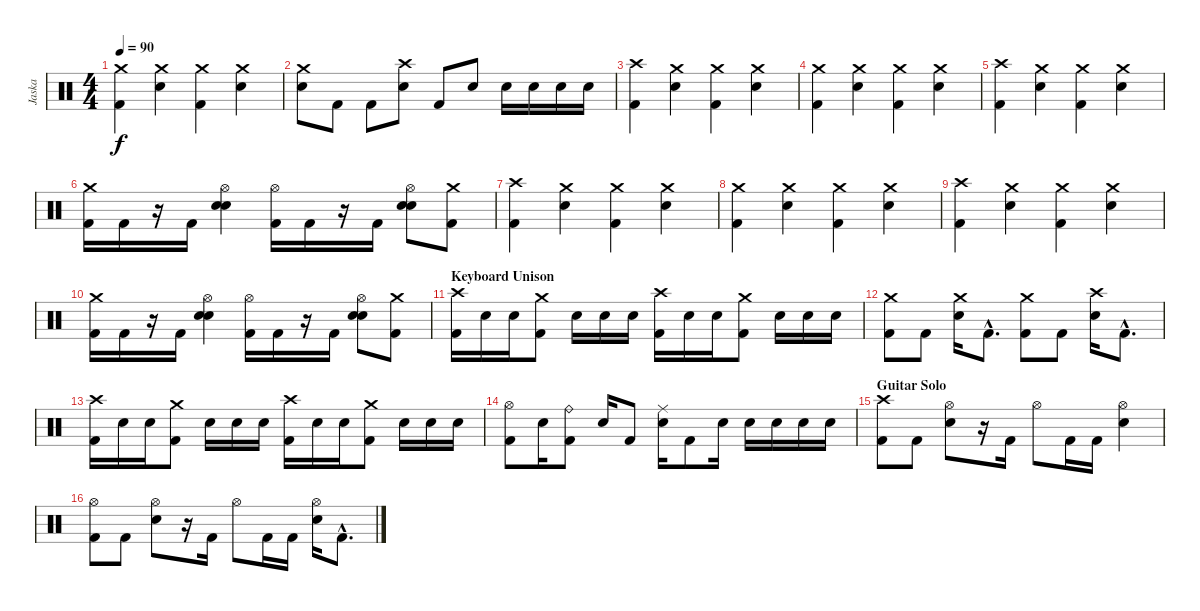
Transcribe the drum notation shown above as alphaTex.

\track ("Jaska" "Jaska") {instrument percussion}
\staff {score}
\articulation defaults
\ts (4 4)
\tempo 90
\clef neutral
\ks c
("Crash medium (hit)" "Kick (hit) 2").4{dy f} ("Crash medium (hit)" "Snare (hit) 2").4 ("Crash medium (hit)" "Kick (hit) 2").4 ("Crash medium (hit)" "Snare (hit) 2").4 |
("Crash medium (hit)" "Snare (hit) 2").8 "Kick (hit) 2".8 "Kick (hit) 2".8 ("Crash high (hit)" "Snare (hit) 2").8 "Kick (hit) 2".8 "Snare (hit) 2".8 "Snare (hit) 2".16 "Snare (hit) 2".16 "Snare (hit) 2".16 "Snare (hit) 2".16 |
("Crash high (hit)" "Kick (hit) 2").4 ("Crash medium (hit)" "Snare (hit) 2").4 ("Crash medium (hit)" "Kick (hit) 2").4 ("Crash medium (hit)" "Snare (hit) 2").4 |
("Crash medium (hit)" "Kick (hit) 2").4 ("Crash medium (hit)" "Snare (hit) 2").4 ("Crash medium (hit)" "Kick (hit) 2").4 ("Crash medium (hit)" "Snare (hit) 2").4 |
("Crash high (hit)" "Kick (hit) 2").4 ("Crash medium (hit)" "Snare (hit) 2").4 ("Crash medium (hit)" "Kick (hit) 2").4 ("Crash medium (hit)" "Snare (hit) 2").4 |
("Crash medium (hit)" "Kick (hit) 2").16 "Kick (hit) 2".16 r.16 "Kick (hit) 2".16 ("Hi-Hat (open)" "Snare (hit) 2" "Snare (hit) 2").4 ("Hi-Hat (open)" "Kick (hit) 2").16 "Kick (hit) 2".16 r.16 "Kick (hit) 2".16 ("Hi-Hat (open)" "Snare (hit) 2" "Snare (hit) 2").8 ("Crash medium (hit)" "Kick (hit) 2").8 |
("Crash high (hit)" "Kick (hit) 2").4 ("Crash medium (hit)" "Snare (hit) 2").4 ("Crash medium (hit)" "Kick (hit) 2").4 ("Crash medium (hit)" "Snare (hit) 2").4 |
("Crash medium (hit)" "Kick (hit) 2").4 ("Crash medium (hit)" "Snare (hit) 2").4 ("Crash medium (hit)" "Kick (hit) 2").4 ("Crash medium (hit)" "Snare (hit) 2").4 |
("Crash high (hit)" "Kick (hit) 2").4 ("Crash medium (hit)" "Snare (hit) 2").4 ("Crash medium (hit)" "Kick (hit) 2").4 ("Crash medium (hit)" "Snare (hit) 2").4 |
("Crash medium (hit)" "Kick (hit) 2").16 "Kick (hit) 2".16 r.16 "Kick (hit) 2".16 ("Hi-Hat (open)" "Snare (hit) 2" "Snare (hit) 2").4 ("Hi-Hat (open)" "Kick (hit) 2").16 "Kick (hit) 2".16 r.16 "Kick (hit) 2".16 ("Hi-Hat (open)" "Snare (hit) 2" "Snare (hit) 2").8 ("Crash medium (hit)" "Kick (hit) 2").8 |
\section ("" "Keyboard Unison")
("Crash high (hit)" "Kick (hit) 2").16 "Snare (hit) 2".16 "Snare (hit) 2".16 ("Crash medium (hit)" "Kick (hit) 2").8 "Snare (hit) 2".16 "Snare (hit) 2".16 "Snare (hit) 2".16 ("Crash high (hit)" "Kick (hit) 2").16 "Snare (hit) 2".16 "Snare (hit) 2".16 ("Crash medium (hit)" "Kick (hit) 2").8 "Snare (hit) 2".16 "Snare (hit) 2".16 "Snare (hit) 2".16 |
("Crash medium (hit)" "Kick (hit) 2").8 "Kick (hit) 2".8 ("Crash medium (hit)" "Snare (hit) 2").16 "Kick (hit) 2"{hac}.8{d} ("Crash medium (hit)" "Kick (hit) 2").8 "Kick (hit) 2".8 ("Crash high (hit)" "Snare (hit) 2").16 "Kick (hit) 2"{hac}.8{d} |
("Crash high (hit)" "Kick (hit) 2").16 "Snare (hit) 2".16 "Snare (hit) 2".16 ("Crash medium (hit)" "Kick (hit) 2").8 "Snare (hit) 2".16 "Snare (hit) 2".16 "Snare (hit) 2".16 ("Crash high (hit)" "Kick (hit) 2").16 "Snare (hit) 2".16 "Snare (hit) 2".16 ("Crash medium (hit)" "Kick (hit) 2").8 "Snare (hit) 2".16 "Snare (hit) 2".16 "Snare (hit) 2".16 |
("Hi-Hat (open)" "Kick (hit) 2").8 "Snare (hit) 2".16 ("Ride (bell)" "Kick (hit) 2").8 "Snare (hit) 2".16 "Kick (hit) 2".8 ("Ride (middle)" "Snare (hit) 2").16 "Kick (hit) 2".8 "Snare (hit) 2".16 "Snare (hit) 2".16 "Snare (hit) 2".16 "Snare (hit) 2".16 "Snare (hit) 2".16 |
\section ("" "Guitar Solo")
("Crash high (hit)" "Kick (hit) 2").8 "Kick (hit) 2".8 ("Hi-Hat (open)" "Snare (hit) 2").8 r.16 "Kick (hit) 2".16 "Hi-Hat (open)".8 "Kick (hit) 2".16 "Kick (hit) 2".16 ("Hi-Hat (open)" "Snare (hit) 2").4 |
("Hi-Hat (open)" "Kick (hit) 2").8 "Kick (hit) 2".8 ("Hi-Hat (open)" "Snare (hit) 2").8 r.16 "Kick (hit) 2".16 "Hi-Hat (open)".8 "Kick (hit) 2".16 "Kick (hit) 2".16 ("Hi-Hat (open)" "Snare (hit) 2").16 "Kick (hit) 2"{hac}.8{d}
